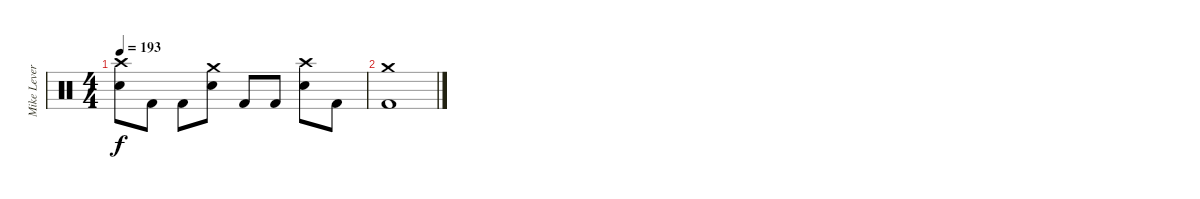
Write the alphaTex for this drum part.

\track ("Mike Leverence - Drums" "Mike Lever") {instrument percussion}
\staff {score}
\articulation defaults
\ts (4 4)
\tempo 193
\clef neutral
\ks c
("Crash high (hit)" "Electric Snare (hit)").8{dy f} "Kick (hit) 2".8 "Kick (hit) 2".8 ("Crash medium (hit)" "Electric Snare (hit)").8 "Kick (hit) 2".8 "Kick (hit) 2".8 ("Crash high (hit)" "Electric Snare (hit)").8 "Kick (hit) 2".8 |
("Crash medium (hit)" "Kick (hit) 2").1
